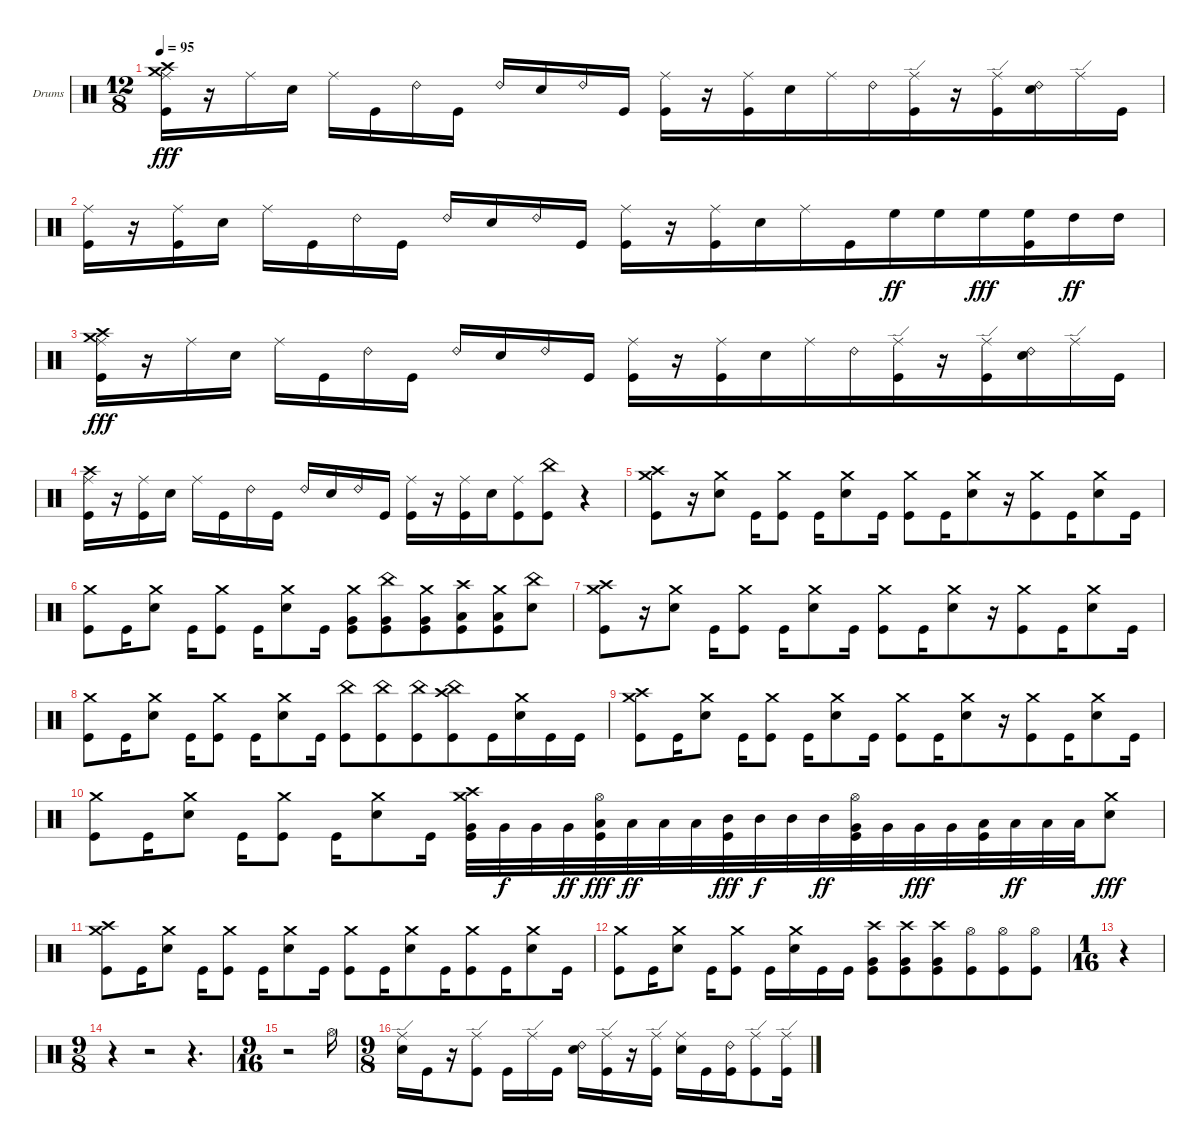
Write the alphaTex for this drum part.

\bracketExtendMode groupsimilarinstruments
\firstSystemTrackNameOrientation horizontal
\otherSystemsTrackNameOrientation horizontal
\track ("Drumkit" "Drums") {instrument percussion}
\staff {score}
\articulation defaults
\ts (12 8)
\beaming (8 2 2 2 6)
\tempo 95
\clef neutral
\ks c
("Ride (middle)" "Kick (hit)" "Crash medium (hit)" "Crash high (hit)").16{dy fff} r.16 "Ride (middle)".16 "Snare (hit) 2".16 "Ride (middle)".16 "Kick (hit)".16 "Ride (bell) 2".16 "Kick (hit)".16 "Ride (bell) 2".16 "Snare (hit) 2".16 "Ride (bell) 2".16 "Kick (hit)".16 ("Ride (middle)" "Kick (hit)").16 r.16 ("Ride (middle)" "Kick (hit)").16 "Snare (hit) 2".16 "Ride (middle)".16 "Ride (bell) 2".16 ("Kick (hit)" "Ride (edge)").16 r.16 ("Kick (hit)" "Ride (edge)").16 ("Snare (hit) 2" "Ride (bell) 2").16 "Ride (edge)".16 "Kick (hit)".16 |
("Ride (middle)" "Kick (hit)").16 r.16 ("Ride (middle)" "Kick (hit)").16 "Snare (hit) 2".16 "Ride (middle)".16 "Kick (hit)".16 "Ride (bell) 2".16 "Kick (hit)".16 "Ride (bell) 2".16 "Snare (hit) 2".16 "Ride (bell) 2".16 "Kick (hit)".16 ("Ride (middle)" "Kick (hit)").16 r.16 ("Ride (middle)" "Kick (hit)").16 "Snare (hit) 2".16 "Ride (middle)".16 "Kick (hit)".16 "High Floor Tom (hit)".16{dy ff} "High Floor Tom (hit)".16 "High Floor Tom (hit)".16{dy fff} ("Kick (hit)" "High Floor Tom (hit)").16 "High Tom (hit)".16{dy ff} "High Tom (hit)".16 |
("Ride (middle)" "Kick (hit)" "Crash medium (hit)" "Crash high (hit)").16{dy fff} r.16 "Ride (middle)".16 "Snare (hit) 2".16 "Ride (middle)".16 "Kick (hit)".16 "Ride (bell) 2".16 "Kick (hit)".16 "Ride (bell) 2".16 "Snare (hit) 2".16 "Ride (bell) 2".16 "Kick (hit)".16 ("Ride (middle)" "Kick (hit)").16 r.16 ("Ride (middle)" "Kick (hit)").16 "Snare (hit) 2".16 "Ride (middle)".16 "Ride (bell) 2".16 ("Kick (hit)" "Ride (edge)").16 r.16 ("Kick (hit)" "Ride (edge)").16 ("Snare (hit) 2" "Ride (bell) 2").16 "Ride (edge)".16 "Kick (hit)".16 |
("Ride (middle)" "Kick (hit)" "Crash high (hit)").16 r.16 ("Ride (middle)" "Kick (hit)").16 "Snare (hit) 2".16 "Ride (middle)".16 "Kick (hit)".16 "Ride (bell) 2".16 "Kick (hit)".16 "Ride (bell) 2".16 "Snare (hit) 2".16 "Ride (bell) 2".16 "Kick (hit)".16 ("Ride (middle)" "Kick (hit)").16 r.16 ("Ride (middle)" "Kick (hit)").16 "Snare (hit) 2".16 ("Ride (middle)" "Kick (hit)").8 ("China (hit)" "Kick (hit)").8 r.4 |
("Kick (hit)" "Crash medium (hit)" "Crash high (hit)").8 r.16 ("Snare (hit) 2" "Crash medium (hit)").8 "Kick (hit)".16 ("Kick (hit)" "Crash medium (hit)").8 "Kick (hit)".16 ("Snare (hit) 2" "Crash medium (hit)").8 "Kick (hit)".16 ("Kick (hit)" "Crash medium (hit)").8 "Kick (hit)".16 ("Snare (hit) 2" "Crash medium (hit)").8 r.16 ("Kick (hit)" "Crash medium (hit)").8 "Kick (hit)".16 ("Snare (hit) 2" "Crash medium (hit)").8 "Kick (hit)".16 |
("Kick (hit)" "Crash medium (hit)").8 "Kick (hit)".16 ("Snare (hit) 2" "Crash medium (hit)").8 "Kick (hit)".16 ("Kick (hit)" "Crash medium (hit)").8 "Kick (hit)".16 ("Snare (hit) 2" "Crash medium (hit)").8 "Kick (hit)".16 ("Kick (hit)" "Very Low Tom (hit)" "Crash medium (hit)").8 ("Kick (hit)" "Very Low Tom (hit)" "China (hit)").8 ("Very Low Tom (hit)" "Kick (hit)" "Crash medium (hit)").8 ("Kick (hit)" "Low Tom (hit)" "Crash high (hit)").8 ("Kick (hit)" "Low Tom (hit)" "Crash medium (hit)").8 ("Snare (hit) 2" "China (hit)").8 |
("Kick (hit)" "Crash medium (hit)" "Crash high (hit)").8 r.16 ("Snare (hit) 2" "Crash medium (hit)").8 "Kick (hit)".16 ("Kick (hit)" "Crash medium (hit)").8 "Kick (hit)".16 ("Snare (hit) 2" "Crash medium (hit)").8 "Kick (hit)".16 ("Kick (hit)" "Crash medium (hit)").8 "Kick (hit)".16 ("Snare (hit) 2" "Crash medium (hit)").8 r.16 ("Kick (hit)" "Crash medium (hit)").8 "Kick (hit)".16 ("Snare (hit) 2" "Crash medium (hit)").8 "Kick (hit)".16 |
("Kick (hit)" "Crash medium (hit)").8 "Kick (hit)".16 ("Snare (hit) 2" "Crash medium (hit)").8 "Kick (hit)".16 ("Kick (hit)" "Crash medium (hit)").8 "Kick (hit)".16 ("Snare (hit) 2" "Crash medium (hit)").8 "Kick (hit)".16 ("Kick (hit)" "China (hit)").8 ("Kick (hit)" "China (hit)").8 ("Kick (hit)" "China (hit)").8 ("Kick (hit)" "China (hit)" "Crash high (hit)").8 "Kick (hit)".16 ("Snare (hit) 2" "Crash medium (hit)").16 "Kick (hit)".16 "Kick (hit)".16 |
("Kick (hit)" "Crash medium (hit)" "Crash high (hit)").8 "Kick (hit)".16 ("Snare (hit) 2" "Crash medium (hit)").8 "Kick (hit)".16 ("Kick (hit)" "Crash medium (hit)").8 "Kick (hit)".16 ("Snare (hit) 2" "Crash medium (hit)").8 "Kick (hit)".16 ("Kick (hit)" "Crash medium (hit)").8 "Kick (hit)".16 ("Snare (hit) 2" "Crash medium (hit)").8 r.16 ("Kick (hit)" "Crash medium (hit)").8 "Kick (hit)".16 ("Snare (hit) 2" "Crash medium (hit)").8 "Kick (hit)".16 |
("Kick (hit)" "Crash medium (hit)").8 "Kick (hit)".16 ("Snare (hit) 2" "Crash medium (hit)").8 "Kick (hit)".16 ("Kick (hit)" "Crash medium (hit)").8 "Kick (hit)".16 ("Snare (hit) 2" "Crash medium (hit)").8 "Kick (hit)".16 ("Kick (hit)" "Crash high (hit)" "Very Low Tom (hit)" "Crash medium (hit)").32 "Very Low Tom (hit)".32{dy f} "Very Low Tom (hit)".32 "Very Low Tom (hit)".32{dy ff} ("Kick (hit)" "Hi-Hat (open)" "Low Tom (hit)").32{dy fff} "Low Tom (hit)".32{dy ff} "Low Tom (hit)".32 "Low Tom (hit)".32 ("Kick (hit)" "Mid Tom (hit)").32{dy fff} "Mid Tom (hit)".32{dy f} "Mid Tom (hit)".32 "Mid Tom (hit)".32{dy ff} ("Very Low Tom (hit)" "Kick (hit)" "Hi-Hat (open)").32 "Very Low Tom (hit)".32 "Very Low Tom (hit)".32{dy fff} "Very Low Tom (hit)".32 ("Kick (hit)" "Low Tom (hit)").32 "Low Tom (hit)".32{dy ff} "Low Tom (hit)".32 "Low Tom (hit)".32 ("Snare (hit) 2" "Crash medium (hit)").8{dy fff} |
("Kick (hit)" "Crash medium (hit)" "Crash high (hit)").8 "Kick (hit)".16 ("Snare (hit) 2" "Crash medium (hit)").8 "Kick (hit)".16 ("Kick (hit)" "Crash medium (hit)").8 "Kick (hit)".16 ("Snare (hit) 2" "Crash medium (hit)").8 "Kick (hit)".16 ("Kick (hit)" "Crash medium (hit)").8 "Kick (hit)".16 ("Snare (hit) 2" "Crash medium (hit)").8 "Kick (hit)".16 ("Kick (hit)" "Crash medium (hit)").8 "Kick (hit)".16 ("Snare (hit) 2" "Crash medium (hit)").8 "Kick (hit)".16 |
("Kick (hit)" "Crash medium (hit)").8 "Kick (hit)".16 ("Snare (hit) 2" "Crash medium (hit)").8 "Kick (hit)".16 ("Kick (hit)" "Crash medium (hit)").8 "Kick (hit)".16 ("Snare (hit) 2" "Crash medium (hit)").16 "Kick (hit)".16 "Kick (hit)".16 ("Kick (hit)" "Very Low Tom (hit)" "Crash high (hit)").8 ("Kick (hit)" "Very Low Tom (hit)" "Crash high (hit)").8 ("Kick (hit)" "Very Low Tom (hit)" "Crash high (hit)").8 ("Hi-Hat (open)" "Kick (hit)").8 ("Hi-Hat (open)" "Kick (hit)").8 ("Hi-Hat (open)" "Kick (hit)").8 |
\ts (1 16)
\beaming (8 2 2 2 2)
r.4 |
\ts (9 8)
\beaming (8 2 2 2 3)
r.4 r.2 r.4{d} |
\ts (9 16)
\beaming (8 2 2 2 2)
r.2 "Hi-Hat (open)".16 |
\ts (9 8)
\beaming (8 2 2 2 3)
("Snare (hit) 2" "Ride (edge)").16 "Kick (hit)".16 r.16 ("Kick (hit)" "Ride (edge)").8 "Kick (hit)".16 "Ride (edge)".16 "Kick (hit)".16 ("Snare (hit) 2" "Ride (bell) 2").16 ("Kick (hit)" "Ride (edge)").16 r.16 ("Kick (hit)" "Ride (edge)").16 ("Ride (middle)" "Snare (hit) 2").16 "Kick (hit)".16 ("Kick (hit)" "Ride (bell) 2").16 ("Kick (hit)" "Ride (edge)").8 ("Kick (hit)" "Ride (edge)").16
